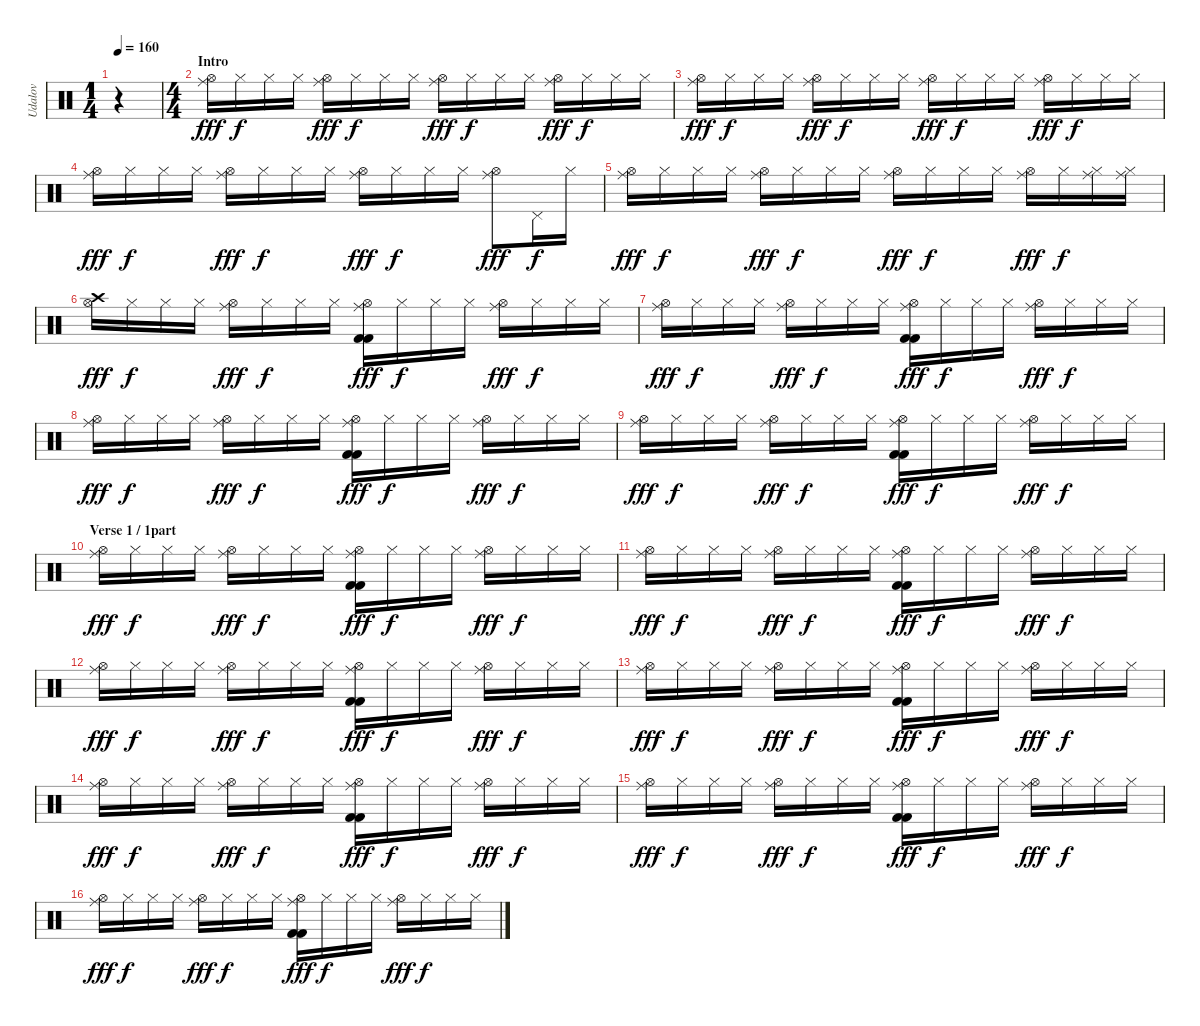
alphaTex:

\track ("Udalov" "Udalov") {instrument percussion}
\staff {score}
\articulation defaults
\ts (1 4)
\tempo 160
\clef neutral
\ks c
r.4{dy fff} |
\ts (4 4)
\section ("" "Intro")
("Hi-Hat (open)" "Ride (middle)").16 "Hi-Hat (closed)".16{dy f} "Hi-Hat (closed)".16 "Hi-Hat (closed)".16 ("Hi-Hat (open)" "Ride (middle)").16{dy fff} "Hi-Hat (closed)".16{dy f} "Hi-Hat (closed)".16 "Hi-Hat (closed)".16 ("Hi-Hat (open)" "Ride (middle)").16{dy fff} "Hi-Hat (closed)".16{dy f} "Hi-Hat (closed)".16 "Hi-Hat (closed)".16 ("Hi-Hat (open)" "Ride (middle)").16{dy fff} "Hi-Hat (closed)".16{dy f} "Hi-Hat (closed)".16 "Hi-Hat (closed)".16 |
("Hi-Hat (open)" "Ride (middle)").16{dy fff} "Hi-Hat (closed)".16{dy f} "Hi-Hat (closed)".16 "Hi-Hat (closed)".16 ("Hi-Hat (open)" "Ride (middle)").16{dy fff} "Hi-Hat (closed)".16{dy f} "Hi-Hat (closed)".16 "Hi-Hat (closed)".16 ("Hi-Hat (open)" "Ride (middle)").16{dy fff} "Hi-Hat (closed)".16{dy f} "Hi-Hat (closed)".16 "Hi-Hat (closed)".16 ("Hi-Hat (open)" "Ride (middle)").16{dy fff} "Hi-Hat (closed)".16{dy f} "Hi-Hat (closed)".16 "Hi-Hat (closed)".16 |
("Hi-Hat (open)" "Ride (middle)").16{dy fff} "Hi-Hat (closed)".16{dy f} "Hi-Hat (closed)".16 "Hi-Hat (closed)".16 ("Hi-Hat (open)" "Ride (middle)").16{dy fff} "Hi-Hat (closed)".16{dy f} "Hi-Hat (closed)".16 "Hi-Hat (closed)".16 ("Hi-Hat (open)" "Ride (middle)").16{dy fff} "Hi-Hat (closed)".16{dy f} "Hi-Hat (closed)".16 "Hi-Hat (closed)".16 ("Hi-Hat (open)" "Ride (middle)").8{dy fff} "Pedal Hi-Hat (hit)".16{dy f} "Hi-Hat (closed)".16 |
("Hi-Hat (open)" "Ride (middle)").16{dy fff} "Hi-Hat (closed)".16{dy f} "Hi-Hat (closed)".16 "Hi-Hat (closed)".16 ("Hi-Hat (open)" "Ride (middle)").16{dy fff} "Hi-Hat (closed)".16{dy f} "Hi-Hat (closed)".16 "Hi-Hat (closed)".16 ("Hi-Hat (open)" "Ride (middle)").16{dy fff} "Hi-Hat (closed)".16{dy f} "Hi-Hat (closed)".16 "Hi-Hat (closed)".16 ("Hi-Hat (open)" "Ride (middle)").16{dy fff} "Hi-Hat (closed)".16{dy f} ("Hi-Hat (closed)" "Ride (middle)").16 ("Hi-Hat (closed)" "Ride (middle)").16 |
("Hi-Hat (open)" "Crash high (hit)").16{dy fff} "Hi-Hat (closed)".16{dy f} "Hi-Hat (closed)".16 "Hi-Hat (closed)".16 ("Hi-Hat (open)" "Ride (middle)").16{dy fff} "Hi-Hat (closed)".16{dy f} "Hi-Hat (closed)".16 "Hi-Hat (closed)".16 ("Hi-Hat (open)" "Ride (middle)" "Kick (hit) 2" "Kick (hit) 2").16{dy fff} "Hi-Hat (closed)".16{dy f} "Hi-Hat (closed)".16 "Hi-Hat (closed)".16 ("Hi-Hat (open)" "Ride (middle)").16{dy fff} "Hi-Hat (closed)".16{dy f} "Hi-Hat (closed)".16 "Hi-Hat (closed)".16 |
("Hi-Hat (open)" "Ride (middle)").16{dy fff} "Hi-Hat (closed)".16{dy f} "Hi-Hat (closed)".16 "Hi-Hat (closed)".16 ("Hi-Hat (open)" "Ride (middle)").16{dy fff} "Hi-Hat (closed)".16{dy f} "Hi-Hat (closed)".16 "Hi-Hat (closed)".16 ("Hi-Hat (open)" "Ride (middle)" "Kick (hit) 2" "Kick (hit) 2").16{dy fff} "Hi-Hat (closed)".16{dy f} "Hi-Hat (closed)".16 "Hi-Hat (closed)".16 ("Hi-Hat (open)" "Ride (middle)").16{dy fff} "Hi-Hat (closed)".16{dy f} "Hi-Hat (closed)".16 "Hi-Hat (closed)".16 |
("Hi-Hat (open)" "Ride (middle)").16{dy fff} "Hi-Hat (closed)".16{dy f} "Hi-Hat (closed)".16 "Hi-Hat (closed)".16 ("Hi-Hat (open)" "Ride (middle)").16{dy fff} "Hi-Hat (closed)".16{dy f} "Hi-Hat (closed)".16 "Hi-Hat (closed)".16 ("Hi-Hat (open)" "Ride (middle)" "Kick (hit) 2" "Kick (hit) 2").16{dy fff} "Hi-Hat (closed)".16{dy f} "Hi-Hat (closed)".16 "Hi-Hat (closed)".16 ("Hi-Hat (open)" "Ride (middle)").16{dy fff} "Hi-Hat (closed)".16{dy f} "Hi-Hat (closed)".16 "Hi-Hat (closed)".16 |
("Hi-Hat (open)" "Ride (middle)").16{dy fff} "Hi-Hat (closed)".16{dy f} "Hi-Hat (closed)".16 "Hi-Hat (closed)".16 ("Hi-Hat (open)" "Ride (middle)").16{dy fff} "Hi-Hat (closed)".16{dy f} "Hi-Hat (closed)".16 "Hi-Hat (closed)".16 ("Hi-Hat (open)" "Ride (middle)" "Kick (hit) 2" "Kick (hit) 2").16{dy fff} "Hi-Hat (closed)".16{dy f} "Hi-Hat (closed)".16 "Hi-Hat (closed)".16 ("Hi-Hat (open)" "Ride (middle)").16{dy fff} "Hi-Hat (closed)".16{dy f} "Hi-Hat (closed)".16 "Hi-Hat (closed)".16 |
\section ("" "Verse 1 / 1part")
("Hi-Hat (open)" "Ride (middle)").16{dy fff} "Hi-Hat (closed)".16{dy f} "Hi-Hat (closed)".16 "Hi-Hat (closed)".16 ("Hi-Hat (open)" "Ride (middle)").16{dy fff} "Hi-Hat (closed)".16{dy f} "Hi-Hat (closed)".16 "Hi-Hat (closed)".16 ("Hi-Hat (open)" "Ride (middle)" "Kick (hit) 2" "Kick (hit) 2").16{dy fff} "Hi-Hat (closed)".16{dy f} "Hi-Hat (closed)".16 "Hi-Hat (closed)".16 ("Hi-Hat (open)" "Ride (middle)").16{dy fff} "Hi-Hat (closed)".16{dy f} "Hi-Hat (closed)".16 "Hi-Hat (closed)".16 |
("Hi-Hat (open)" "Ride (middle)").16{dy fff} "Hi-Hat (closed)".16{dy f} "Hi-Hat (closed)".16 "Hi-Hat (closed)".16 ("Hi-Hat (open)" "Ride (middle)").16{dy fff} "Hi-Hat (closed)".16{dy f} "Hi-Hat (closed)".16 "Hi-Hat (closed)".16 ("Hi-Hat (open)" "Ride (middle)" "Kick (hit) 2" "Kick (hit) 2").16{dy fff} "Hi-Hat (closed)".16{dy f} "Hi-Hat (closed)".16 "Hi-Hat (closed)".16 ("Hi-Hat (open)" "Ride (middle)").16{dy fff} "Hi-Hat (closed)".16{dy f} "Hi-Hat (closed)".16 "Hi-Hat (closed)".16 |
("Hi-Hat (open)" "Ride (middle)").16{dy fff} "Hi-Hat (closed)".16{dy f} "Hi-Hat (closed)".16 "Hi-Hat (closed)".16 ("Hi-Hat (open)" "Ride (middle)").16{dy fff} "Hi-Hat (closed)".16{dy f} "Hi-Hat (closed)".16 "Hi-Hat (closed)".16 ("Hi-Hat (open)" "Ride (middle)" "Kick (hit) 2" "Kick (hit) 2").16{dy fff} "Hi-Hat (closed)".16{dy f} "Hi-Hat (closed)".16 "Hi-Hat (closed)".16 ("Hi-Hat (open)" "Ride (middle)").16{dy fff} "Hi-Hat (closed)".16{dy f} "Hi-Hat (closed)".16 "Hi-Hat (closed)".16 |
("Hi-Hat (open)" "Ride (middle)").16{dy fff} "Hi-Hat (closed)".16{dy f} "Hi-Hat (closed)".16 "Hi-Hat (closed)".16 ("Hi-Hat (open)" "Ride (middle)").16{dy fff} "Hi-Hat (closed)".16{dy f} "Hi-Hat (closed)".16 "Hi-Hat (closed)".16 ("Hi-Hat (open)" "Ride (middle)" "Kick (hit) 2" "Kick (hit) 2").16{dy fff} "Hi-Hat (closed)".16{dy f} "Hi-Hat (closed)".16 "Hi-Hat (closed)".16 ("Hi-Hat (open)" "Ride (middle)").16{dy fff} "Hi-Hat (closed)".16{dy f} "Hi-Hat (closed)".16 "Hi-Hat (closed)".16 |
("Hi-Hat (open)" "Ride (middle)").16{dy fff} "Hi-Hat (closed)".16{dy f} "Hi-Hat (closed)".16 "Hi-Hat (closed)".16 ("Hi-Hat (open)" "Ride (middle)").16{dy fff} "Hi-Hat (closed)".16{dy f} "Hi-Hat (closed)".16 "Hi-Hat (closed)".16 ("Hi-Hat (open)" "Ride (middle)" "Kick (hit) 2" "Kick (hit) 2").16{dy fff} "Hi-Hat (closed)".16{dy f} "Hi-Hat (closed)".16 "Hi-Hat (closed)".16 ("Hi-Hat (open)" "Ride (middle)").16{dy fff} "Hi-Hat (closed)".16{dy f} "Hi-Hat (closed)".16 "Hi-Hat (closed)".16 |
("Hi-Hat (open)" "Ride (middle)").16{dy fff} "Hi-Hat (closed)".16{dy f} "Hi-Hat (closed)".16 "Hi-Hat (closed)".16 ("Hi-Hat (open)" "Ride (middle)").16{dy fff} "Hi-Hat (closed)".16{dy f} "Hi-Hat (closed)".16 "Hi-Hat (closed)".16 ("Hi-Hat (open)" "Ride (middle)" "Kick (hit) 2" "Kick (hit) 2").16{dy fff} "Hi-Hat (closed)".16{dy f} "Hi-Hat (closed)".16 "Hi-Hat (closed)".16 ("Hi-Hat (open)" "Ride (middle)").16{dy fff} "Hi-Hat (closed)".16{dy f} "Hi-Hat (closed)".16 "Hi-Hat (closed)".16 |
("Hi-Hat (open)" "Ride (middle)").16{dy fff} "Hi-Hat (closed)".16{dy f} "Hi-Hat (closed)".16 "Hi-Hat (closed)".16 ("Hi-Hat (open)" "Ride (middle)").16{dy fff} "Hi-Hat (closed)".16{dy f} "Hi-Hat (closed)".16 "Hi-Hat (closed)".16 ("Hi-Hat (open)" "Ride (middle)" "Kick (hit) 2" "Kick (hit) 2").16{dy fff} "Hi-Hat (closed)".16{dy f} "Hi-Hat (closed)".16 "Hi-Hat (closed)".16 ("Hi-Hat (open)" "Ride (middle)").16{dy fff} "Hi-Hat (closed)".16{dy f} "Hi-Hat (closed)".16 "Hi-Hat (closed)".16
